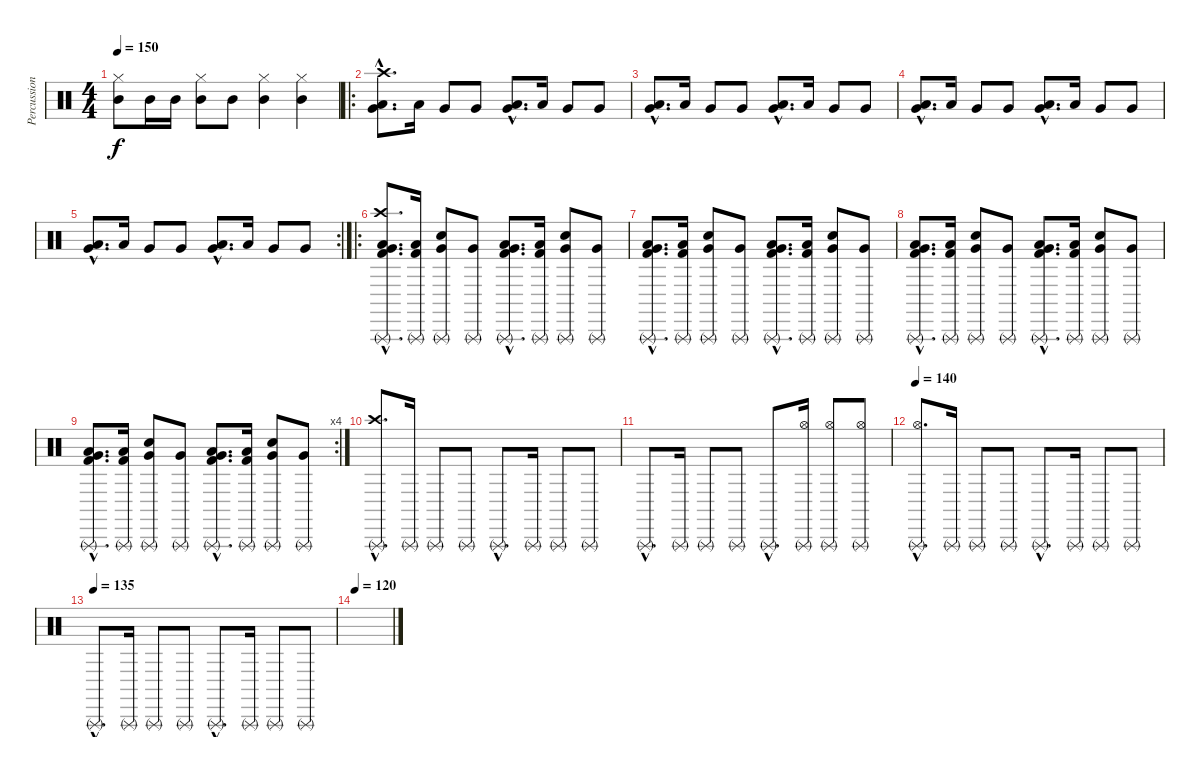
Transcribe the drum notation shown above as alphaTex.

\track ("Percussions" "Percussion") {instrument percussion}
\staff {score}
\articulation defaults
\ts (4 4)
\tempo 150
\clef neutral
\ks c
("Mid Tom (hit)" "Hi-Hat (closed)").8{dy f} "Mid Tom (hit)".16 "Mid Tom (hit)".16 ("Mid Tom (hit)" "Hi-Hat (closed)").8 "Mid Tom (hit)".8 ("Mid Tom (hit)" "Hi-Hat (closed)").4 ("Mid Tom (hit)" "Hi-Hat (closed)").4 |
\ro
("Very Low Tom (hit)"{hac} "Low Floor Tom (hit)"{hac} "Crash high (hit)"{hac}).8{d} "Low Floor Tom (hit)".16 "Very Low Tom (hit)".8 "Very Low Tom (hit)".8 ("Very Low Tom (hit)"{hac} "Low Floor Tom (hit)"{hac}).8{d} "Low Floor Tom (hit)".16 "Very Low Tom (hit)".8 "Very Low Tom (hit)".8 |
("Very Low Tom (hit)"{hac} "Low Floor Tom (hit)"{hac}).8{d} "Low Floor Tom (hit)".16 "Very Low Tom (hit)".8 "Very Low Tom (hit)".8 ("Very Low Tom (hit)"{hac} "Low Floor Tom (hit)"{hac}).8{d} "Low Floor Tom (hit)".16 "Very Low Tom (hit)".8 "Very Low Tom (hit)".8 |
("Very Low Tom (hit)"{hac} "Low Floor Tom (hit)"{hac}).8{d} "Low Floor Tom (hit)".16 "Very Low Tom (hit)".8 "Very Low Tom (hit)".8 ("Very Low Tom (hit)"{hac} "Low Floor Tom (hit)"{hac}).8{d} "Low Floor Tom (hit)".16 "Very Low Tom (hit)".8 "Very Low Tom (hit)".8 |
\rc 2
("Very Low Tom (hit)"{hac} "Low Floor Tom (hit)"{hac}).8{d} "Low Floor Tom (hit)".16 "Very Low Tom (hit)".8 "Very Low Tom (hit)".8 ("Very Low Tom (hit)"{hac} "Low Floor Tom (hit)"{hac}).8{d} "Low Floor Tom (hit)".16 "Very Low Tom (hit)".8 "Very Low Tom (hit)".8 |
\ro
("Very Low Tom (hit)"{hac} "Low Floor Tom (hit)"{hac} "Kick (hit) 2"{hac} "Triangle (rnute)"{hac} "Crash high (hit)"{hac}).8{d} ("Low Floor Tom (hit)" "Kick (hit) 2" "Triangle (rnute)").16 ("Very Low Tom (hit)" "Snare (hit) 2" "Triangle (rnute)").8 ("Very Low Tom (hit)" "Triangle (rnute)").8 ("Very Low Tom (hit)"{hac} "Low Floor Tom (hit)"{hac} "Kick (hit) 2"{hac} "Triangle (rnute)"{hac}).8{d} ("Low Floor Tom (hit)" "Kick (hit) 2" "Triangle (rnute)").16 ("Very Low Tom (hit)" "Snare (hit) 2" "Triangle (rnute)").8 ("Very Low Tom (hit)" "Triangle (rnute)").8 |
("Very Low Tom (hit)"{hac} "Low Floor Tom (hit)"{hac} "Kick (hit) 2"{hac} "Triangle (rnute)"{hac}).8{d} ("Low Floor Tom (hit)" "Kick (hit) 2" "Triangle (rnute)").16 ("Very Low Tom (hit)" "Snare (hit) 2" "Triangle (rnute)").8 ("Very Low Tom (hit)" "Triangle (rnute)").8 ("Very Low Tom (hit)"{hac} "Low Floor Tom (hit)"{hac} "Kick (hit) 2"{hac} "Triangle (rnute)"{hac}).8{d} ("Low Floor Tom (hit)" "Kick (hit) 2" "Triangle (rnute)").16 ("Very Low Tom (hit)" "Snare (hit) 2" "Triangle (rnute)").8 ("Very Low Tom (hit)" "Triangle (rnute)").8 |
("Very Low Tom (hit)"{hac} "Low Floor Tom (hit)"{hac} "Kick (hit) 2"{hac} "Triangle (rnute)"{hac}).8{d} ("Low Floor Tom (hit)" "Kick (hit) 2" "Triangle (rnute)").16 ("Very Low Tom (hit)" "Snare (hit) 2" "Triangle (rnute)").8 ("Very Low Tom (hit)" "Triangle (rnute)").8 ("Very Low Tom (hit)"{hac} "Low Floor Tom (hit)"{hac} "Kick (hit) 2"{hac} "Triangle (rnute)"{hac}).8{d} ("Low Floor Tom (hit)" "Kick (hit) 2" "Triangle (rnute)").16 ("Very Low Tom (hit)" "Snare (hit) 2" "Triangle (rnute)").8 ("Very Low Tom (hit)" "Triangle (rnute)").8 |
\rc 4
("Very Low Tom (hit)"{hac} "Low Floor Tom (hit)"{hac} "Kick (hit) 2"{hac} "Triangle (rnute)"{hac}).8{d} ("Low Floor Tom (hit)" "Kick (hit) 2" "Triangle (rnute)").16 ("Very Low Tom (hit)" "Snare (hit) 2" "Triangle (rnute)").8 ("Very Low Tom (hit)" "Triangle (rnute)").8 ("Very Low Tom (hit)"{hac} "Low Floor Tom (hit)"{hac} "Kick (hit) 2"{hac} "Triangle (rnute)"{hac}).8{d} ("Low Floor Tom (hit)" "Kick (hit) 2" "Triangle (rnute)").16 ("Very Low Tom (hit)" "Snare (hit) 2" "Triangle (rnute)").8 ("Very Low Tom (hit)" "Triangle (rnute)").8 |
("Crash high (hit)"{hac} "Triangle (rnute)"{hac}).8{d} "Triangle (rnute)".16 "Triangle (rnute)".8 "Triangle (rnute)".8 "Triangle (rnute)"{hac}.8{d} "Triangle (rnute)".16 "Triangle (rnute)".8 "Triangle (rnute)".8 |
"Triangle (rnute)"{hac}.8{d} "Triangle (rnute)".16 "Triangle (rnute)".8 "Triangle (rnute)".8 "Triangle (rnute)"{hac}.8{d} ("Hi-Hat (open)" "Triangle (rnute)").16 ("Hi-Hat (open)" "Triangle (rnute)").8 ("Hi-Hat (open)" "Triangle (rnute)").8 |
\tempo 140
("Hi-Hat (open)"{hac} "Triangle (rnute)"{hac}).8{d} "Triangle (rnute)".16 "Triangle (rnute)".8 "Triangle (rnute)".8 "Triangle (rnute)"{hac}.8{d} "Triangle (rnute)".16 "Triangle (rnute)".8 "Triangle (rnute)".8 |
\tempo (135)
"Triangle (rnute)"{hac}.8{d} "Triangle (rnute)".16 "Triangle (rnute)".8 "Triangle (rnute)".8 "Triangle (rnute)"{hac}.8{d} "Triangle (rnute)".16 "Triangle (rnute)".8 "Triangle (rnute)".8 |
\tempo 120
